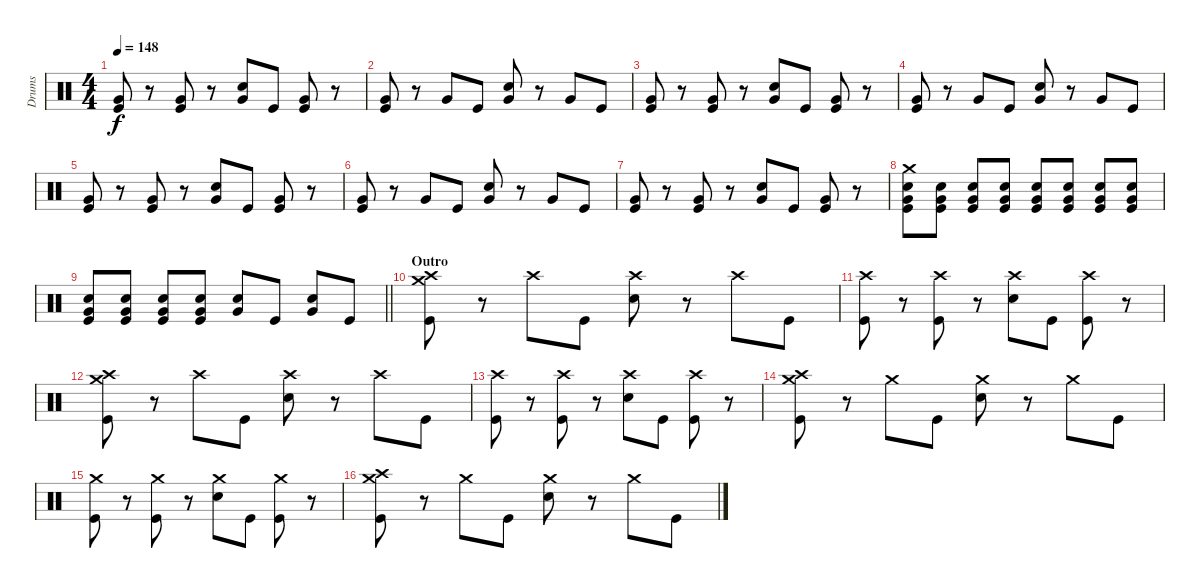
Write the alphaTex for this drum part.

\track ("Drums" "Drums") {instrument percussion}
\staff {score}
\articulation defaults
\ts (4 4)
\tempo 148
\clef neutral
\ks c
("Very Low Tom (hit)" "Kick (hit)").8{dy f} r.8 ("Very Low Tom (hit)" "Kick (hit)").8 r.8 ("Very Low Tom (hit)" "Electric Snare (hit)").8 "Kick (hit)".8 ("Very Low Tom (hit)" "Kick (hit)").8 r.8 |
("Very Low Tom (hit)" "Kick (hit)").8 r.8 "Very Low Tom (hit)".8 "Kick (hit)".8 ("Very Low Tom (hit)" "Electric Snare (hit)").8 r.8 "Very Low Tom (hit)".8 "Kick (hit)".8 |
("Very Low Tom (hit)" "Kick (hit)").8 r.8 ("Very Low Tom (hit)" "Kick (hit)").8 r.8 ("Very Low Tom (hit)" "Electric Snare (hit)").8 "Kick (hit)".8 ("Very Low Tom (hit)" "Kick (hit)").8 r.8 |
("Very Low Tom (hit)" "Kick (hit)").8 r.8 "Very Low Tom (hit)".8 "Kick (hit)".8 ("Very Low Tom (hit)" "Electric Snare (hit)").8 r.8 "Very Low Tom (hit)".8 "Kick (hit)".8 |
("Very Low Tom (hit)" "Kick (hit)").8 r.8 ("Very Low Tom (hit)" "Kick (hit)").8 r.8 ("Very Low Tom (hit)" "Electric Snare (hit)").8 "Kick (hit)".8 ("Very Low Tom (hit)" "Kick (hit)").8 r.8 |
("Very Low Tom (hit)" "Kick (hit)").8 r.8 "Very Low Tom (hit)".8 "Kick (hit)".8 ("Very Low Tom (hit)" "Electric Snare (hit)").8 r.8 "Very Low Tom (hit)".8 "Kick (hit)".8 |
("Very Low Tom (hit)" "Kick (hit)").8 r.8 ("Very Low Tom (hit)" "Kick (hit)").8 r.8 ("Very Low Tom (hit)" "Electric Snare (hit)").8 "Kick (hit)".8 ("Very Low Tom (hit)" "Kick (hit)").8 r.8 |
("Crash medium (hit)" "Very Low Tom (hit)" "Electric Snare (hit)" "Kick (hit)").8 ("Very Low Tom (hit)" "Electric Snare (hit)" "Kick (hit)").8 ("Very Low Tom (hit)" "Electric Snare (hit)" "Kick (hit)").8 ("Very Low Tom (hit)" "Electric Snare (hit)" "Kick (hit)").8 ("Very Low Tom (hit)" "Electric Snare (hit)" "Kick (hit)").8 ("Very Low Tom (hit)" "Electric Snare (hit)" "Kick (hit)").8 ("Very Low Tom (hit)" "Electric Snare (hit)" "Kick (hit)").8 ("Very Low Tom (hit)" "Electric Snare (hit)" "Kick (hit)").8 |
\barLineRight lightlight
("Very Low Tom (hit)" "Electric Snare (hit)" "Kick (hit)").8 ("Very Low Tom (hit)" "Electric Snare (hit)" "Kick (hit)").8 ("Very Low Tom (hit)" "Electric Snare (hit)" "Kick (hit)").8 ("Very Low Tom (hit)" "Electric Snare (hit)" "Kick (hit)").8 ("Very Low Tom (hit)" "Electric Snare (hit)").8 "Kick (hit)".8 ("Very Low Tom (hit)" "Electric Snare (hit)").8 "Kick (hit)".8 |
\section ("" "Outro")
("Crash medium (hit)" "Crash high (hit)" "Kick (hit)").8 r.8 "Crash high (hit)".8 "Kick (hit)".8 ("Crash high (hit)" "Electric Snare (hit)").8 r.8 "Crash high (hit)".8 "Kick (hit)".8 |
("Crash high (hit)" "Kick (hit)").8 r.8 ("Crash high (hit)" "Kick (hit)").8 r.8 ("Crash high (hit)" "Electric Snare (hit)").8 "Kick (hit)".8 ("Crash high (hit)" "Kick (hit)").8 r.8 |
("Crash medium (hit)" "Crash high (hit)" "Kick (hit)").8 r.8 "Crash high (hit)".8 "Kick (hit)".8 ("Crash high (hit)" "Electric Snare (hit)").8 r.8 "Crash high (hit)".8 "Kick (hit)".8 |
("Crash high (hit)" "Kick (hit)").8 r.8 ("Crash high (hit)" "Kick (hit)").8 r.8 ("Crash high (hit)" "Electric Snare (hit)").8 "Kick (hit)".8 ("Crash high (hit)" "Kick (hit)").8 r.8 |
("Crash high (hit)" "Crash medium (hit)" "Kick (hit)").8 r.8 "Crash medium (hit)".8 "Kick (hit)".8 ("Crash medium (hit)" "Electric Snare (hit)").8 r.8 "Crash medium (hit)".8 "Kick (hit)".8 |
("Crash medium (hit)" "Kick (hit)").8 r.8 ("Crash medium (hit)" "Kick (hit)").8 r.8 ("Crash medium (hit)" "Electric Snare (hit)").8 "Kick (hit)".8 ("Crash medium (hit)" "Kick (hit)").8 r.8 |
("Crash high (hit)" "Crash medium (hit)" "Kick (hit)").8 r.8 "Crash medium (hit)".8 "Kick (hit)".8 ("Crash medium (hit)" "Electric Snare (hit)").8 r.8 "Crash medium (hit)".8 "Kick (hit)".8
